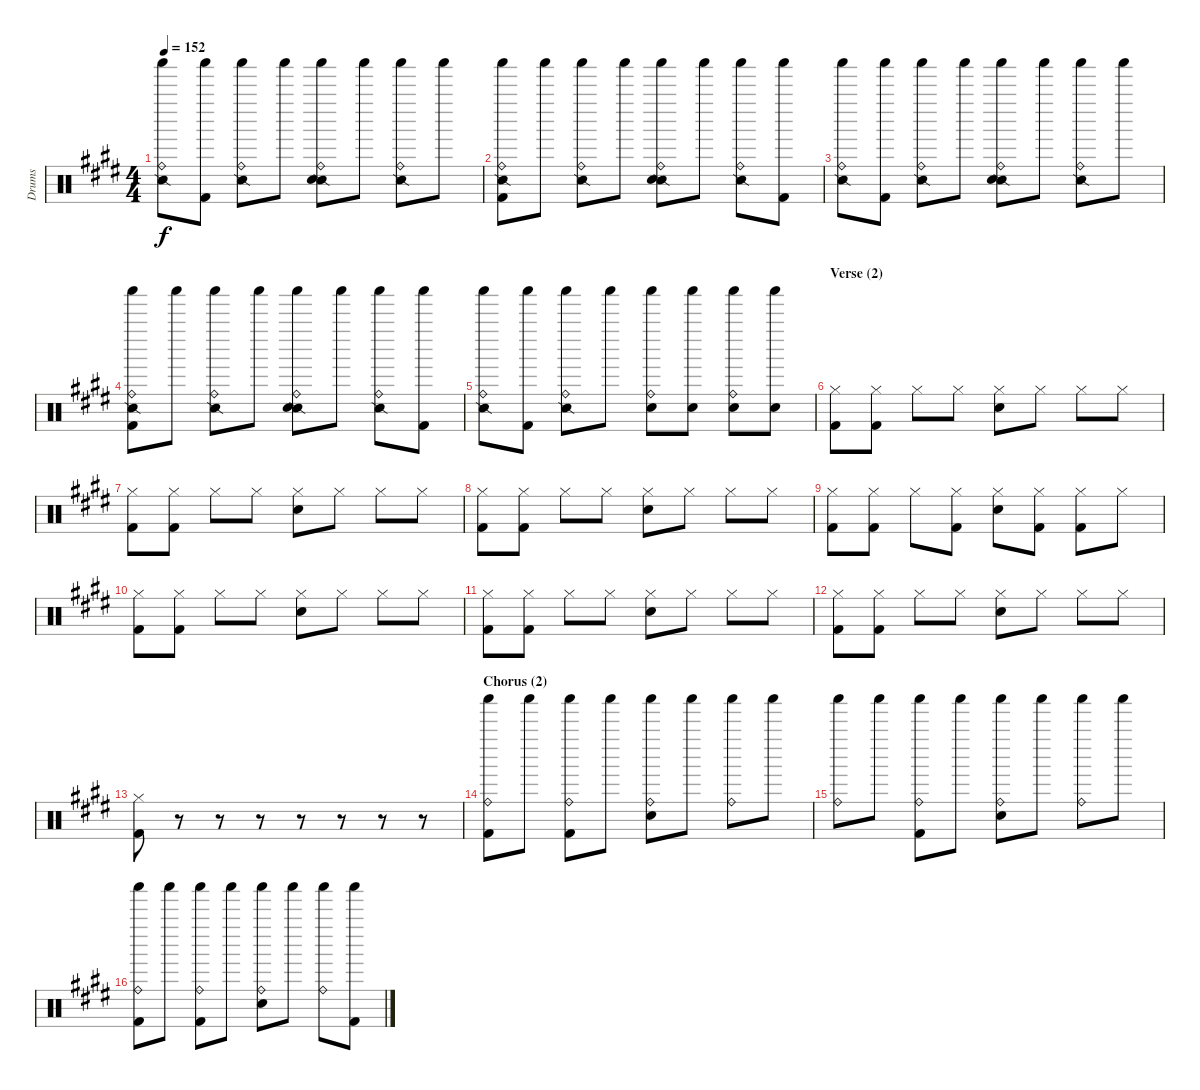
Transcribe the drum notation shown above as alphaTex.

\track ("Drums" "Drums") {instrument percussion}
\staff {score}
\articulation defaults
\ts (4 4)
\tempo 152
\clef neutral
\ks c#minor
("Snare (side stick) 2" "Ride (bell)" "Shaker (hit)").8{dy f} ("Shaker (hit)" "Kick (hit) 2").8 ("Snare (side stick) 2" "Ride (bell)" "Shaker (hit)").8 "Shaker (hit)".8 ("Snare (side stick) 2" "Ride (bell)" "Snare (hit) 2" "Shaker (hit)").8 "Shaker (hit)".8 ("Snare (side stick) 2" "Ride (bell)" "Shaker (hit)").8 "Shaker (hit)".8 |
("Snare (side stick) 2" "Ride (bell)" "Kick (hit) 2" "Shaker (hit)").8 "Shaker (hit)".8 ("Snare (side stick) 2" "Ride (bell)" "Shaker (hit)").8 "Shaker (hit)".8 ("Snare (side stick) 2" "Ride (bell)" "Snare (hit) 2" "Shaker (hit)").8 "Shaker (hit)".8 ("Snare (side stick) 2" "Ride (bell)" "Shaker (hit)").8 ("Kick (hit) 2" "Shaker (hit)").8 |
("Snare (side stick) 2" "Ride (bell)" "Shaker (hit)").8 ("Shaker (hit)" "Kick (hit) 2").8 ("Snare (side stick) 2" "Ride (bell)" "Shaker (hit)").8 "Shaker (hit)".8 ("Snare (side stick) 2" "Ride (bell)" "Snare (hit) 2" "Shaker (hit)").8 "Shaker (hit)".8 ("Snare (side stick) 2" "Ride (bell)" "Shaker (hit)").8 "Shaker (hit)".8 |
("Snare (side stick) 2" "Ride (bell)" "Kick (hit) 2" "Shaker (hit)").8 "Shaker (hit)".8 ("Snare (side stick) 2" "Ride (bell)" "Shaker (hit)").8 "Shaker (hit)".8 ("Snare (side stick) 2" "Ride (bell)" "Snare (hit) 2" "Shaker (hit)").8 "Shaker (hit)".8 ("Snare (side stick) 2" "Ride (bell)" "Shaker (hit)").8 ("Kick (hit) 2" "Shaker (hit)").8 |
("Snare (side stick) 2" "Ride (bell)" "Shaker (hit)").8 ("Shaker (hit)" "Kick (hit) 2").8 ("Snare (side stick) 2" "Ride (bell)" "Shaker (hit)").8 "Shaker (hit)".8 ("Ride (bell)" "Snare (hit) 2" "Shaker (hit)").8 ("Snare (hit) 2" "Shaker (hit)").8 ("Snare (hit) 2" "Ride (bell)" "Shaker (hit)").8 ("Snare (hit) 2" "Shaker (hit)").8 |
\section ("" "Verse (2)")
("Kick (hit) 2" "Hi-Hat (closed)").8 ("Hi-Hat (closed)" "Kick (hit) 2").8 "Hi-Hat (closed)".8 "Hi-Hat (closed)".8 ("Snare (hit) 2" "Hi-Hat (closed)").8 "Hi-Hat (closed)".8 "Hi-Hat (closed)".8 "Hi-Hat (closed)".8 |
("Kick (hit) 2" "Hi-Hat (closed)").8 ("Hi-Hat (closed)" "Kick (hit) 2").8 "Hi-Hat (closed)".8 "Hi-Hat (closed)".8 ("Snare (hit) 2" "Hi-Hat (closed)").8 "Hi-Hat (closed)".8 "Hi-Hat (closed)".8 "Hi-Hat (closed)".8 |
("Kick (hit) 2" "Hi-Hat (closed)").8 ("Hi-Hat (closed)" "Kick (hit) 2").8 "Hi-Hat (closed)".8 "Hi-Hat (closed)".8 ("Snare (hit) 2" "Hi-Hat (closed)").8 "Hi-Hat (closed)".8 "Hi-Hat (closed)".8 "Hi-Hat (closed)".8 |
("Kick (hit) 2" "Hi-Hat (closed)").8 ("Hi-Hat (closed)" "Kick (hit) 2").8 "Hi-Hat (closed)".8 ("Kick (hit) 2" "Hi-Hat (closed)").8 ("Snare (hit) 2" "Hi-Hat (closed)").8 ("Kick (hit) 2" "Hi-Hat (closed)").8 ("Kick (hit) 2" "Hi-Hat (closed)").8 "Hi-Hat (closed)".8 |
("Kick (hit) 2" "Hi-Hat (closed)").8 ("Hi-Hat (closed)" "Kick (hit) 2").8 "Hi-Hat (closed)".8 "Hi-Hat (closed)".8 ("Snare (hit) 2" "Hi-Hat (closed)").8 "Hi-Hat (closed)".8 "Hi-Hat (closed)".8 "Hi-Hat (closed)".8 |
("Kick (hit) 2" "Hi-Hat (closed)").8 ("Hi-Hat (closed)" "Kick (hit) 2").8 "Hi-Hat (closed)".8 "Hi-Hat (closed)".8 ("Snare (hit) 2" "Hi-Hat (closed)").8 "Hi-Hat (closed)".8 "Hi-Hat (closed)".8 "Hi-Hat (closed)".8 |
("Kick (hit) 2" "Hi-Hat (closed)").8 ("Hi-Hat (closed)" "Kick (hit) 2").8 "Hi-Hat (closed)".8 "Hi-Hat (closed)".8 ("Snare (hit) 2" "Hi-Hat (closed)").8 "Hi-Hat (closed)".8 "Hi-Hat (closed)".8 "Hi-Hat (closed)".8 |
("Kick (hit) 2" "Hi-Hat (closed)").8 r.8 r.8 r.8 r.8 r.8 r.8 r.8 |
\section ("" "Chorus (2)")
("Ride (bell)" "Kick (hit) 2" "Shaker (hit)").8 "Shaker (hit)".8 ("Ride (bell)" "Kick (hit) 2" "Shaker (hit)").8 "Shaker (hit)".8 ("Ride (bell)" "Snare (hit) 2" "Shaker (hit)").8 "Shaker (hit)".8 ("Ride (bell)" "Shaker (hit)").8 "Shaker (hit)".8 |
("Ride (bell)" "Shaker (hit)").8 "Shaker (hit)".8 ("Ride (bell)" "Kick (hit) 2" "Shaker (hit)").8 "Shaker (hit)".8 ("Ride (bell)" "Snare (hit) 2" "Shaker (hit)").8 "Shaker (hit)".8 ("Ride (bell)" "Shaker (hit)").8 "Shaker (hit)".8 |
("Ride (bell)" "Kick (hit) 2" "Shaker (hit)").8 "Shaker (hit)".8 ("Ride (bell)" "Kick (hit) 2" "Shaker (hit)").8 "Shaker (hit)".8 ("Ride (bell)" "Snare (hit) 2" "Shaker (hit)").8 "Shaker (hit)".8 ("Ride (bell)" "Shaker (hit)").8 ("Kick (hit) 2" "Shaker (hit)").8
